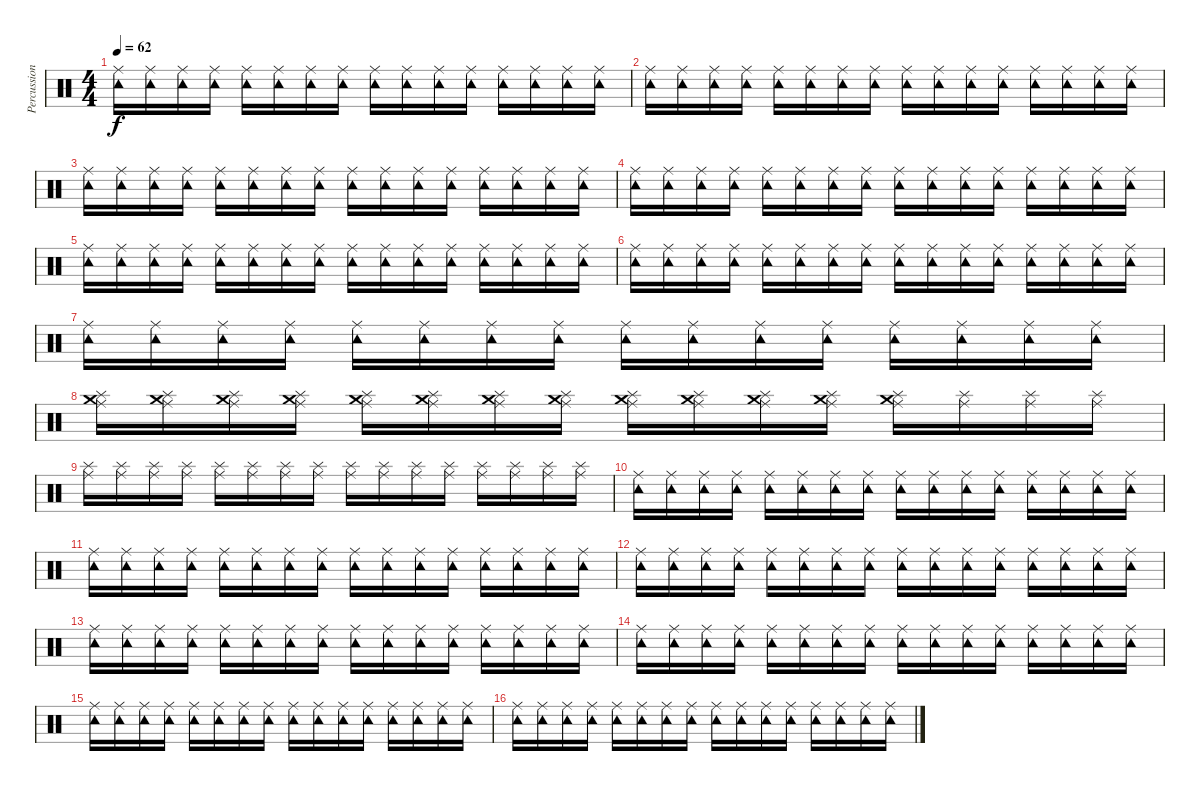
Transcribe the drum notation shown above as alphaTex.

\track ("Percussion" "Percussion") {instrument percussion}
\staff {score}
\articulation defaults
\ts (4 4)
\tempo 62
\clef neutral
\ks c
("Ride (middle)" "Tambourine (hit)").16{dy f} ("Ride (middle)" "Tambourine (hit)").16 ("Ride (middle)" "Tambourine (hit)").16 ("Ride (middle)" "Tambourine (hit)").16 ("Ride (middle)" "Tambourine (hit)").16 ("Ride (middle)" "Tambourine (hit)").16 ("Ride (middle)" "Tambourine (hit)").16 ("Ride (middle)" "Tambourine (hit)").16 ("Ride (middle)" "Tambourine (hit)").16 ("Ride (middle)" "Tambourine (hit)").16 ("Ride (middle)" "Tambourine (hit)").16 ("Ride (middle)" "Tambourine (hit)").16 ("Ride (middle)" "Tambourine (hit)").16 ("Ride (middle)" "Tambourine (hit)").16 ("Ride (middle)" "Tambourine (hit)").16 ("Tambourine (hit)" "Ride (middle)").16 |
("Ride (middle)" "Tambourine (hit)").16 ("Ride (middle)" "Tambourine (hit)").16 ("Ride (middle)" "Tambourine (hit)").16 ("Ride (middle)" "Tambourine (hit)").16 ("Ride (middle)" "Tambourine (hit)").16 ("Ride (middle)" "Tambourine (hit)").16 ("Ride (middle)" "Tambourine (hit)").16 ("Ride (middle)" "Tambourine (hit)").16 ("Ride (middle)" "Tambourine (hit)").16 ("Ride (middle)" "Tambourine (hit)").16 ("Ride (middle)" "Tambourine (hit)").16 ("Ride (middle)" "Tambourine (hit)").16 ("Ride (middle)" "Tambourine (hit)").16 ("Ride (middle)" "Tambourine (hit)").16 ("Ride (middle)" "Tambourine (hit)").16 ("Tambourine (hit)" "Ride (middle)").16 |
("Ride (middle)" "Tambourine (hit)").16 ("Ride (middle)" "Tambourine (hit)").16 ("Ride (middle)" "Tambourine (hit)").16 ("Ride (middle)" "Tambourine (hit)").16 ("Ride (middle)" "Tambourine (hit)").16 ("Ride (middle)" "Tambourine (hit)").16 ("Ride (middle)" "Tambourine (hit)").16 ("Ride (middle)" "Tambourine (hit)").16 ("Ride (middle)" "Tambourine (hit)").16 ("Ride (middle)" "Tambourine (hit)").16 ("Ride (middle)" "Tambourine (hit)").16 ("Ride (middle)" "Tambourine (hit)").16 ("Ride (middle)" "Tambourine (hit)").16 ("Ride (middle)" "Tambourine (hit)").16 ("Ride (middle)" "Tambourine (hit)").16 ("Tambourine (hit)" "Ride (middle)").16 |
("Ride (middle)" "Tambourine (hit)").16 ("Ride (middle)" "Tambourine (hit)").16 ("Ride (middle)" "Tambourine (hit)").16 ("Ride (middle)" "Tambourine (hit)").16 ("Ride (middle)" "Tambourine (hit)").16 ("Ride (middle)" "Tambourine (hit)").16 ("Ride (middle)" "Tambourine (hit)").16 ("Ride (middle)" "Tambourine (hit)").16 ("Ride (middle)" "Tambourine (hit)").16 ("Ride (middle)" "Tambourine (hit)").16 ("Ride (middle)" "Tambourine (hit)").16 ("Ride (middle)" "Tambourine (hit)").16 ("Ride (middle)" "Tambourine (hit)").16 ("Ride (middle)" "Tambourine (hit)").16 ("Ride (middle)" "Tambourine (hit)").16 ("Tambourine (hit)" "Ride (middle)").16 |
("Ride (middle)" "Tambourine (hit)").16 ("Ride (middle)" "Tambourine (hit)").16 ("Ride (middle)" "Tambourine (hit)").16 ("Ride (middle)" "Tambourine (hit)").16 ("Ride (middle)" "Tambourine (hit)").16 ("Ride (middle)" "Tambourine (hit)").16 ("Ride (middle)" "Tambourine (hit)").16 ("Ride (middle)" "Tambourine (hit)").16 ("Ride (middle)" "Tambourine (hit)").16 ("Ride (middle)" "Tambourine (hit)").16 ("Ride (middle)" "Tambourine (hit)").16 ("Ride (middle)" "Tambourine (hit)").16 ("Ride (middle)" "Tambourine (hit)").16 ("Ride (middle)" "Tambourine (hit)").16 ("Ride (middle)" "Tambourine (hit)").16 ("Tambourine (hit)" "Ride (middle)").16 |
("Ride (middle)" "Tambourine (hit)").16 ("Ride (middle)" "Tambourine (hit)").16 ("Ride (middle)" "Tambourine (hit)").16 ("Ride (middle)" "Tambourine (hit)").16 ("Ride (middle)" "Tambourine (hit)").16 ("Ride (middle)" "Tambourine (hit)").16 ("Ride (middle)" "Tambourine (hit)").16 ("Ride (middle)" "Tambourine (hit)").16 ("Ride (middle)" "Tambourine (hit)").16 ("Ride (middle)" "Tambourine (hit)").16 ("Ride (middle)" "Tambourine (hit)").16 ("Ride (middle)" "Tambourine (hit)").16 ("Ride (middle)" "Tambourine (hit)").16 ("Ride (middle)" "Tambourine (hit)").16 ("Ride (middle)" "Tambourine (hit)").16 ("Tambourine (hit)" "Ride (middle)").16 |
("Ride (middle)" "Tambourine (hit)").16 ("Ride (middle)" "Tambourine (hit)").16 ("Ride (middle)" "Tambourine (hit)").16 ("Ride (middle)" "Tambourine (hit)").16 ("Ride (middle)" "Tambourine (hit)").16 ("Ride (middle)" "Tambourine (hit)").16 ("Ride (middle)" "Tambourine (hit)").16 ("Ride (middle)" "Tambourine (hit)").16 ("Ride (middle)" "Tambourine (hit)").16 ("Ride (middle)" "Tambourine (hit)").16 ("Ride (middle)" "Tambourine (hit)").16 ("Ride (middle)" "Tambourine (hit)").16 ("Ride (middle)" "Tambourine (hit)").16 ("Ride (middle)" "Tambourine (hit)").16 ("Ride (middle)" "Tambourine (hit)").16 ("Tambourine (hit)" "Ride (middle)").16 |
("Ride (middle)" "Splash (hit)" "Crash medium (hit)").16 ("Ride (middle)" "Splash (hit)" "Crash medium (hit)").16 ("Ride (middle)" "Splash (hit)" "Crash medium (hit)").16 ("Ride (middle)" "Splash (hit)" "Crash medium (hit)").16 ("Ride (middle)" "Splash (hit)" "Crash medium (hit)").16 ("Splash (hit)" "Ride (middle)" "Crash medium (hit)").16 ("Splash (hit)" "Ride (middle)" "Crash medium (hit)").16 ("Splash (hit)" "Ride (middle)" "Crash medium (hit)").16 ("Splash (hit)" "Ride (middle)" "Crash medium (hit)").16 ("Splash (hit)" "Ride (middle)" "Crash medium (hit)").16 ("Splash (hit)" "Ride (middle)" "Crash medium (hit)").16 ("Splash (hit)" "Ride (middle)" "Crash medium (hit)").16 ("Splash (hit)" "Ride (middle)" "Crash medium (hit)").16 ("Splash (hit)" "Ride (middle)").16 ("Splash (hit)" "Ride (middle)").16 ("Splash (hit)" "Ride (middle)").16 |
("Ride (middle)" "Splash (hit)").16 ("Ride (middle)" "Splash (hit)").16 ("Ride (middle)" "Splash (hit)").16 ("Ride (middle)" "Splash (hit)").16 ("Ride (middle)" "Splash (hit)").16 ("Splash (hit)" "Ride (middle)").16 ("Splash (hit)" "Ride (middle)").16 ("Splash (hit)" "Ride (middle)").16 ("Splash (hit)" "Ride (middle)").16 ("Splash (hit)" "Ride (middle)").16 ("Splash (hit)" "Ride (middle)").16 ("Splash (hit)" "Ride (middle)").16 ("Splash (hit)" "Ride (middle)").16 ("Splash (hit)" "Ride (middle)").16 ("Splash (hit)" "Ride (middle)").16 ("Splash (hit)" "Ride (middle)").16 |
("Ride (middle)" "Tambourine (hit)").16 ("Ride (middle)" "Tambourine (hit)").16 ("Ride (middle)" "Tambourine (hit)").16 ("Ride (middle)" "Tambourine (hit)").16 ("Ride (middle)" "Tambourine (hit)").16 ("Ride (middle)" "Tambourine (hit)").16 ("Ride (middle)" "Tambourine (hit)").16 ("Ride (middle)" "Tambourine (hit)").16 ("Ride (middle)" "Tambourine (hit)").16 ("Ride (middle)" "Tambourine (hit)").16 ("Ride (middle)" "Tambourine (hit)").16 ("Ride (middle)" "Tambourine (hit)").16 ("Ride (middle)" "Tambourine (hit)").16 ("Ride (middle)" "Tambourine (hit)").16 ("Ride (middle)" "Tambourine (hit)").16 ("Tambourine (hit)" "Ride (middle)").16 |
("Ride (middle)" "Tambourine (hit)").16 ("Ride (middle)" "Tambourine (hit)").16 ("Ride (middle)" "Tambourine (hit)").16 ("Ride (middle)" "Tambourine (hit)").16 ("Ride (middle)" "Tambourine (hit)").16 ("Ride (middle)" "Tambourine (hit)").16 ("Ride (middle)" "Tambourine (hit)").16 ("Ride (middle)" "Tambourine (hit)").16 ("Ride (middle)" "Tambourine (hit)").16 ("Ride (middle)" "Tambourine (hit)").16 ("Ride (middle)" "Tambourine (hit)").16 ("Ride (middle)" "Tambourine (hit)").16 ("Ride (middle)" "Tambourine (hit)").16 ("Ride (middle)" "Tambourine (hit)").16 ("Ride (middle)" "Tambourine (hit)").16 ("Tambourine (hit)" "Ride (middle)").16 |
("Ride (middle)" "Tambourine (hit)").16 ("Ride (middle)" "Tambourine (hit)").16 ("Ride (middle)" "Tambourine (hit)").16 ("Ride (middle)" "Tambourine (hit)").16 ("Ride (middle)" "Tambourine (hit)").16 ("Ride (middle)" "Tambourine (hit)").16 ("Ride (middle)" "Tambourine (hit)").16 ("Ride (middle)" "Tambourine (hit)").16 ("Ride (middle)" "Tambourine (hit)").16 ("Ride (middle)" "Tambourine (hit)").16 ("Ride (middle)" "Tambourine (hit)").16 ("Ride (middle)" "Tambourine (hit)").16 ("Ride (middle)" "Tambourine (hit)").16 ("Ride (middle)" "Tambourine (hit)").16 ("Ride (middle)" "Tambourine (hit)").16 ("Tambourine (hit)" "Ride (middle)").16 |
("Ride (middle)" "Tambourine (hit)").16 ("Ride (middle)" "Tambourine (hit)").16 ("Ride (middle)" "Tambourine (hit)").16 ("Ride (middle)" "Tambourine (hit)").16 ("Ride (middle)" "Tambourine (hit)").16 ("Ride (middle)" "Tambourine (hit)").16 ("Ride (middle)" "Tambourine (hit)").16 ("Ride (middle)" "Tambourine (hit)").16 ("Ride (middle)" "Tambourine (hit)").16 ("Ride (middle)" "Tambourine (hit)").16 ("Ride (middle)" "Tambourine (hit)").16 ("Ride (middle)" "Tambourine (hit)").16 ("Ride (middle)" "Tambourine (hit)").16 ("Ride (middle)" "Tambourine (hit)").16 ("Ride (middle)" "Tambourine (hit)").16 ("Tambourine (hit)" "Ride (middle)").16 |
("Ride (middle)" "Tambourine (hit)").16 ("Ride (middle)" "Tambourine (hit)").16 ("Ride (middle)" "Tambourine (hit)").16 ("Ride (middle)" "Tambourine (hit)").16 ("Ride (middle)" "Tambourine (hit)").16 ("Ride (middle)" "Tambourine (hit)").16 ("Ride (middle)" "Tambourine (hit)").16 ("Ride (middle)" "Tambourine (hit)").16 ("Ride (middle)" "Tambourine (hit)").16 ("Ride (middle)" "Tambourine (hit)").16 ("Ride (middle)" "Tambourine (hit)").16 ("Ride (middle)" "Tambourine (hit)").16 ("Ride (middle)" "Tambourine (hit)").16 ("Ride (middle)" "Tambourine (hit)").16 ("Ride (middle)" "Tambourine (hit)").16 ("Tambourine (hit)" "Ride (middle)").16 |
("Ride (middle)" "Tambourine (hit)").16 ("Ride (middle)" "Tambourine (hit)").16 ("Ride (middle)" "Tambourine (hit)").16 ("Ride (middle)" "Tambourine (hit)").16 ("Ride (middle)" "Tambourine (hit)").16 ("Ride (middle)" "Tambourine (hit)").16 ("Ride (middle)" "Tambourine (hit)").16 ("Ride (middle)" "Tambourine (hit)").16 ("Ride (middle)" "Tambourine (hit)").16 ("Ride (middle)" "Tambourine (hit)").16 ("Ride (middle)" "Tambourine (hit)").16 ("Ride (middle)" "Tambourine (hit)").16 ("Ride (middle)" "Tambourine (hit)").16 ("Ride (middle)" "Tambourine (hit)").16 ("Ride (middle)" "Tambourine (hit)").16 ("Tambourine (hit)" "Ride (middle)").16 |
("Ride (middle)" "Tambourine (hit)").16 ("Ride (middle)" "Tambourine (hit)").16 ("Ride (middle)" "Tambourine (hit)").16 ("Ride (middle)" "Tambourine (hit)").16 ("Ride (middle)" "Tambourine (hit)").16 ("Ride (middle)" "Tambourine (hit)").16 ("Ride (middle)" "Tambourine (hit)").16 ("Ride (middle)" "Tambourine (hit)").16 ("Ride (middle)" "Tambourine (hit)").16 ("Ride (middle)" "Tambourine (hit)").16 ("Ride (middle)" "Tambourine (hit)").16 ("Ride (middle)" "Tambourine (hit)").16 ("Ride (middle)" "Tambourine (hit)").16 ("Ride (middle)" "Tambourine (hit)").16 ("Ride (middle)" "Tambourine (hit)").16 ("Tambourine (hit)" "Ride (middle)").16
